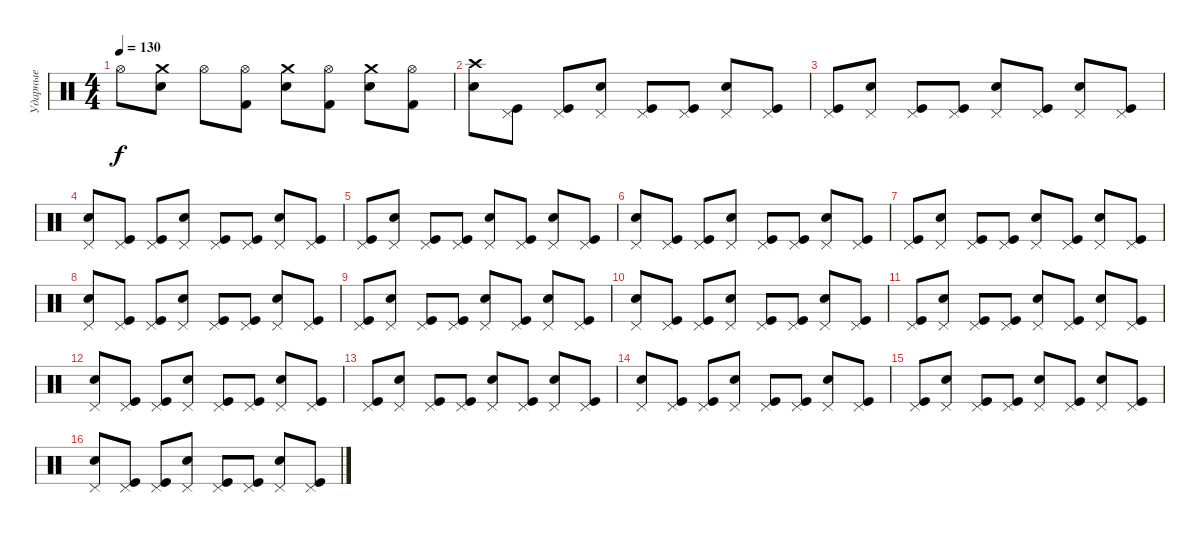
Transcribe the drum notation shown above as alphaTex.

\track ("Ударные" "Ударные") {instrument percussion}
\staff {score}
\articulation defaults
\ts (4 4)
\tempo 130
\clef neutral
\ks c "Hi-Hat (open)".8{dy f}
("Crash medium (hit)" "Snare (hit) 2").8 "Hi-Hat (open)".8 ("Hi-Hat (open)" "Kick (hit) 2").8 ("Crash medium (hit)" "Snare (hit) 2").8 ("Hi-Hat (open)" "Kick (hit) 2").8 ("Crash medium (hit)" "Snare (hit) 2").8 ("Hi-Hat (open)" "Kick (hit) 2").8 |
("Crash high (hit)" "Electric Snare (hit)").8 ("Pedal Hi-Hat (hit)" "Kick (hit)").8 ("Pedal Hi-Hat (hit)" "Kick (hit)").8 ("Pedal Hi-Hat (hit)" "Electric Snare (hit)").8 ("Pedal Hi-Hat (hit)" "Kick (hit)").8 ("Pedal Hi-Hat (hit)" "Kick (hit)").8 ("Pedal Hi-Hat (hit)" "Electric Snare (hit)").8 ("Pedal Hi-Hat (hit)" "Kick (hit)").8 |
("Pedal Hi-Hat (hit)" "Kick (hit)").8 ("Pedal Hi-Hat (hit)" "Electric Snare (hit)").8 ("Pedal Hi-Hat (hit)" "Kick (hit)").8 ("Pedal Hi-Hat (hit)" "Kick (hit)").8 ("Pedal Hi-Hat (hit)" "Electric Snare (hit)").8 ("Pedal Hi-Hat (hit)" "Kick (hit)").8 ("Pedal Hi-Hat (hit)" "Electric Snare (hit)").8 ("Pedal Hi-Hat (hit)" "Kick (hit)").8 |
("Pedal Hi-Hat (hit)" "Electric Snare (hit)").8 ("Pedal Hi-Hat (hit)" "Kick (hit)").8 ("Pedal Hi-Hat (hit)" "Kick (hit)").8 ("Pedal Hi-Hat (hit)" "Electric Snare (hit)").8 ("Pedal Hi-Hat (hit)" "Kick (hit)").8 ("Pedal Hi-Hat (hit)" "Kick (hit)").8 ("Pedal Hi-Hat (hit)" "Electric Snare (hit)").8 ("Pedal Hi-Hat (hit)" "Kick (hit)").8 |
("Pedal Hi-Hat (hit)" "Kick (hit)").8 ("Pedal Hi-Hat (hit)" "Electric Snare (hit)").8 ("Pedal Hi-Hat (hit)" "Kick (hit)").8 ("Pedal Hi-Hat (hit)" "Kick (hit)").8 ("Pedal Hi-Hat (hit)" "Electric Snare (hit)").8 ("Pedal Hi-Hat (hit)" "Kick (hit)").8 ("Pedal Hi-Hat (hit)" "Electric Snare (hit)").8 ("Pedal Hi-Hat (hit)" "Kick (hit)").8 |
("Pedal Hi-Hat (hit)" "Electric Snare (hit)").8 ("Pedal Hi-Hat (hit)" "Kick (hit)").8 ("Pedal Hi-Hat (hit)" "Kick (hit)").8 ("Pedal Hi-Hat (hit)" "Electric Snare (hit)").8 ("Pedal Hi-Hat (hit)" "Kick (hit)").8 ("Pedal Hi-Hat (hit)" "Kick (hit)").8 ("Pedal Hi-Hat (hit)" "Electric Snare (hit)").8 ("Pedal Hi-Hat (hit)" "Kick (hit)").8 |
("Pedal Hi-Hat (hit)" "Kick (hit)").8 ("Pedal Hi-Hat (hit)" "Electric Snare (hit)").8 ("Pedal Hi-Hat (hit)" "Kick (hit)").8 ("Pedal Hi-Hat (hit)" "Kick (hit)").8 ("Pedal Hi-Hat (hit)" "Electric Snare (hit)").8 ("Pedal Hi-Hat (hit)" "Kick (hit)").8 ("Pedal Hi-Hat (hit)" "Electric Snare (hit)").8 ("Pedal Hi-Hat (hit)" "Kick (hit)").8 |
("Pedal Hi-Hat (hit)" "Electric Snare (hit)").8 ("Pedal Hi-Hat (hit)" "Kick (hit)").8 ("Pedal Hi-Hat (hit)" "Kick (hit)").8 ("Pedal Hi-Hat (hit)" "Electric Snare (hit)").8 ("Pedal Hi-Hat (hit)" "Kick (hit)").8 ("Pedal Hi-Hat (hit)" "Kick (hit)").8 ("Pedal Hi-Hat (hit)" "Electric Snare (hit)").8 ("Pedal Hi-Hat (hit)" "Kick (hit)").8 |
("Pedal Hi-Hat (hit)" "Kick (hit)").8 ("Pedal Hi-Hat (hit)" "Electric Snare (hit)").8 ("Pedal Hi-Hat (hit)" "Kick (hit)").8 ("Pedal Hi-Hat (hit)" "Kick (hit)").8 ("Pedal Hi-Hat (hit)" "Electric Snare (hit)").8 ("Pedal Hi-Hat (hit)" "Kick (hit)").8 ("Pedal Hi-Hat (hit)" "Electric Snare (hit)").8 ("Pedal Hi-Hat (hit)" "Kick (hit)").8 |
("Pedal Hi-Hat (hit)" "Electric Snare (hit)").8 ("Pedal Hi-Hat (hit)" "Kick (hit)").8 ("Pedal Hi-Hat (hit)" "Kick (hit)").8 ("Pedal Hi-Hat (hit)" "Electric Snare (hit)").8 ("Pedal Hi-Hat (hit)" "Kick (hit)").8 ("Pedal Hi-Hat (hit)" "Kick (hit)").8 ("Pedal Hi-Hat (hit)" "Electric Snare (hit)").8 ("Pedal Hi-Hat (hit)" "Kick (hit)").8 |
("Pedal Hi-Hat (hit)" "Kick (hit)").8 ("Pedal Hi-Hat (hit)" "Electric Snare (hit)").8 ("Pedal Hi-Hat (hit)" "Kick (hit)").8 ("Pedal Hi-Hat (hit)" "Kick (hit)").8 ("Pedal Hi-Hat (hit)" "Electric Snare (hit)").8 ("Pedal Hi-Hat (hit)" "Kick (hit)").8 ("Pedal Hi-Hat (hit)" "Electric Snare (hit)").8 ("Pedal Hi-Hat (hit)" "Kick (hit)").8 |
("Pedal Hi-Hat (hit)" "Electric Snare (hit)").8 ("Pedal Hi-Hat (hit)" "Kick (hit)").8 ("Pedal Hi-Hat (hit)" "Kick (hit)").8 ("Pedal Hi-Hat (hit)" "Electric Snare (hit)").8 ("Pedal Hi-Hat (hit)" "Kick (hit)").8 ("Pedal Hi-Hat (hit)" "Kick (hit)").8 ("Pedal Hi-Hat (hit)" "Electric Snare (hit)").8 ("Pedal Hi-Hat (hit)" "Kick (hit)").8 |
("Pedal Hi-Hat (hit)" "Kick (hit)").8 ("Pedal Hi-Hat (hit)" "Electric Snare (hit)").8 ("Pedal Hi-Hat (hit)" "Kick (hit)").8 ("Pedal Hi-Hat (hit)" "Kick (hit)").8 ("Pedal Hi-Hat (hit)" "Electric Snare (hit)").8 ("Pedal Hi-Hat (hit)" "Kick (hit)").8 ("Pedal Hi-Hat (hit)" "Electric Snare (hit)").8 ("Pedal Hi-Hat (hit)" "Kick (hit)").8 |
("Pedal Hi-Hat (hit)" "Electric Snare (hit)").8 ("Pedal Hi-Hat (hit)" "Kick (hit)").8 ("Pedal Hi-Hat (hit)" "Kick (hit)").8 ("Pedal Hi-Hat (hit)" "Electric Snare (hit)").8 ("Pedal Hi-Hat (hit)" "Kick (hit)").8 ("Pedal Hi-Hat (hit)" "Kick (hit)").8 ("Pedal Hi-Hat (hit)" "Electric Snare (hit)").8 ("Pedal Hi-Hat (hit)" "Kick (hit)").8 |
("Pedal Hi-Hat (hit)" "Kick (hit)").8 ("Pedal Hi-Hat (hit)" "Electric Snare (hit)").8 ("Pedal Hi-Hat (hit)" "Kick (hit)").8 ("Pedal Hi-Hat (hit)" "Kick (hit)").8 ("Pedal Hi-Hat (hit)" "Electric Snare (hit)").8 ("Pedal Hi-Hat (hit)" "Kick (hit)").8 ("Pedal Hi-Hat (hit)" "Electric Snare (hit)").8 ("Pedal Hi-Hat (hit)" "Kick (hit)").8 |
("Pedal Hi-Hat (hit)" "Electric Snare (hit)").8 ("Pedal Hi-Hat (hit)" "Kick (hit)").8 ("Pedal Hi-Hat (hit)" "Kick (hit)").8 ("Pedal Hi-Hat (hit)" "Electric Snare (hit)").8 ("Pedal Hi-Hat (hit)" "Kick (hit)").8 ("Pedal Hi-Hat (hit)" "Kick (hit)").8 ("Pedal Hi-Hat (hit)" "Electric Snare (hit)").8 ("Pedal Hi-Hat (hit)" "Kick (hit)").8
